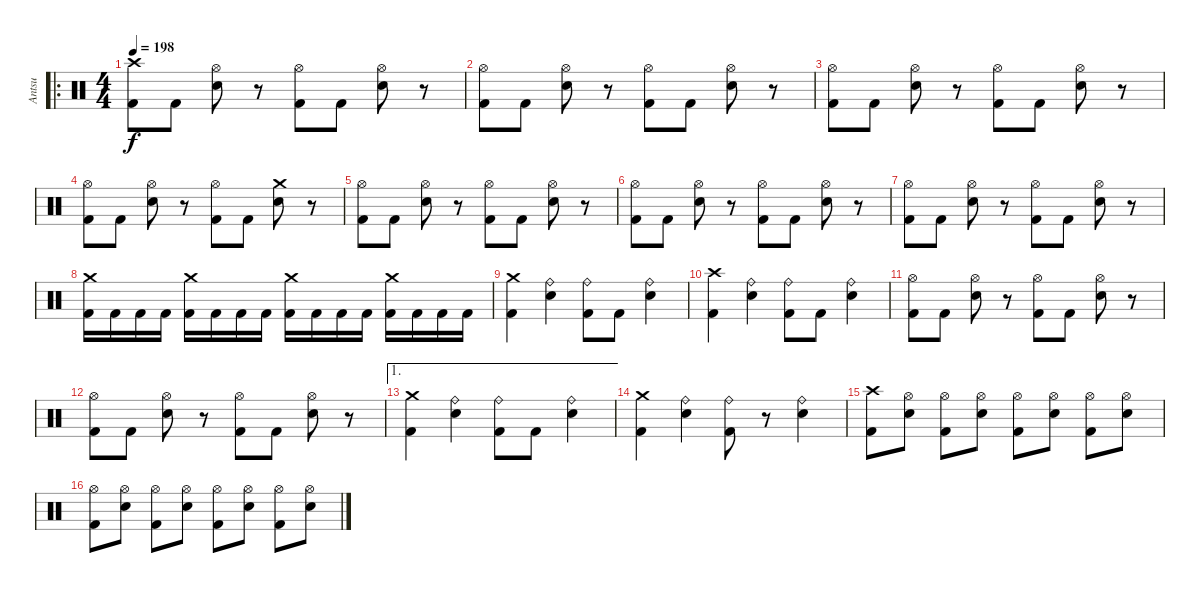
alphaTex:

\track ("Antsu" "Antsu") {instrument percussion}
\staff {score}
\articulation defaults
\ro
\ts (4 4)
\tempo 198
\clef neutral
\ks c
("Crash high (hit)" "Kick (hit) 2").8{dy f} "Kick (hit) 2".8 ("Hi-Hat (open)" "Snare (hit) 2").8 r.8 ("Hi-Hat (open)" "Kick (hit) 2").8 "Kick (hit) 2".8 ("Hi-Hat (open)" "Snare (hit) 2").8 r.8 |
("Hi-Hat (open)" "Kick (hit) 2").8 "Kick (hit) 2".8 ("Hi-Hat (open)" "Snare (hit) 2").8 r.8 ("Hi-Hat (open)" "Kick (hit) 2").8 "Kick (hit) 2".8 ("Hi-Hat (open)" "Snare (hit) 2").8 r.8 |
("Hi-Hat (open)" "Kick (hit) 2").8 "Kick (hit) 2".8 ("Hi-Hat (open)" "Snare (hit) 2").8 r.8 ("Hi-Hat (open)" "Kick (hit) 2").8 "Kick (hit) 2".8 ("Hi-Hat (open)" "Snare (hit) 2").8 r.8 |
("Hi-Hat (open)" "Kick (hit) 2").8 "Kick (hit) 2".8 ("Hi-Hat (open)" "Snare (hit) 2").8 r.8 ("Hi-Hat (open)" "Kick (hit) 2").8 "Kick (hit) 2".8 ("Crash medium (hit)" "Snare (hit) 2").8 r.8 |
("Hi-Hat (open)" "Kick (hit) 2").8 "Kick (hit) 2".8 ("Hi-Hat (open)" "Snare (hit) 2").8 r.8 ("Hi-Hat (open)" "Kick (hit) 2").8 "Kick (hit) 2".8 ("Hi-Hat (open)" "Snare (hit) 2").8 r.8 |
("Hi-Hat (open)" "Kick (hit) 2").8 "Kick (hit) 2".8 ("Hi-Hat (open)" "Snare (hit) 2").8 r.8 ("Hi-Hat (open)" "Kick (hit) 2").8 "Kick (hit) 2".8 ("Hi-Hat (open)" "Snare (hit) 2").8 r.8 |
("Hi-Hat (open)" "Kick (hit) 2").8 "Kick (hit) 2".8 ("Hi-Hat (open)" "Snare (hit) 2").8 r.8 ("Hi-Hat (open)" "Kick (hit) 2").8 "Kick (hit) 2".8 ("Hi-Hat (open)" "Snare (hit) 2").8 r.8 |
("Crash medium (hit)" "Kick (hit) 2").16 "Kick (hit) 2".16 "Kick (hit) 2".16 "Kick (hit) 2".16 ("Crash medium (hit)" "Kick (hit) 2").16 "Kick (hit) 2".16 "Kick (hit) 2".16 "Kick (hit) 2".16 ("Crash medium (hit)" "Kick (hit) 2").16 "Kick (hit) 2".16 "Kick (hit) 2".16 "Kick (hit) 2".16 ("Crash medium (hit)" "Kick (hit) 2").16 "Kick (hit) 2".16 "Kick (hit) 2".16 "Kick (hit) 2".16 |
("Crash medium (hit)" "Kick (hit) 2").4 ("Ride (bell)" "Snare (hit) 2").4 ("Ride (bell)" "Kick (hit) 2").8 "Kick (hit) 2".8 ("Ride (bell)" "Snare (hit) 2").4 |
("Crash high (hit)" "Kick (hit) 2").4 ("Ride (bell)" "Snare (hit) 2").4 ("Ride (bell)" "Kick (hit) 2").8 "Kick (hit) 2".8 ("Ride (bell)" "Snare (hit) 2").4 |
("Hi-Hat (open)" "Kick (hit) 2").8 "Kick (hit) 2".8 ("Hi-Hat (open)" "Snare (hit) 2").8 r.8 ("Hi-Hat (open)" "Kick (hit) 2").8 "Kick (hit) 2".8 ("Hi-Hat (open)" "Snare (hit) 2").8 r.8 |
("Hi-Hat (open)" "Kick (hit) 2").8 "Kick (hit) 2".8 ("Hi-Hat (open)" "Snare (hit) 2").8 r.8 ("Hi-Hat (open)" "Kick (hit) 2").8 "Kick (hit) 2".8 ("Hi-Hat (open)" "Snare (hit) 2").8 r.8 |
\ae 1
("Crash medium (hit)" "Kick (hit) 2").4 ("Ride (bell)" "Snare (hit) 2").4 ("Ride (bell)" "Kick (hit) 2").8 "Kick (hit) 2".8 ("Ride (bell)" "Snare (hit) 2").4 |
("Crash medium (hit)" "Kick (hit) 2").4 ("Ride (bell)" "Snare (hit) 2").4 ("Ride (bell)" "Kick (hit) 2").8 r.8 ("Ride (bell)" "Snare (hit) 2").4 |
("Crash high (hit)" "Kick (hit) 2").8 ("Hi-Hat (open)" "Snare (hit) 2").8 ("Hi-Hat (open)" "Kick (hit) 2").8 ("Hi-Hat (open)" "Snare (hit) 2").8 ("Hi-Hat (open)" "Kick (hit) 2").8 ("Hi-Hat (open)" "Snare (hit) 2").8 ("Hi-Hat (open)" "Kick (hit) 2").8 ("Hi-Hat (open)" "Snare (hit) 2").8 |
("Hi-Hat (open)" "Kick (hit) 2").8 ("Hi-Hat (open)" "Snare (hit) 2").8 ("Hi-Hat (open)" "Kick (hit) 2").8 ("Hi-Hat (open)" "Snare (hit) 2").8 ("Hi-Hat (open)" "Kick (hit) 2").8 ("Hi-Hat (open)" "Snare (hit) 2").8 ("Hi-Hat (open)" "Kick (hit) 2").8 ("Hi-Hat (open)" "Snare (hit) 2").8
